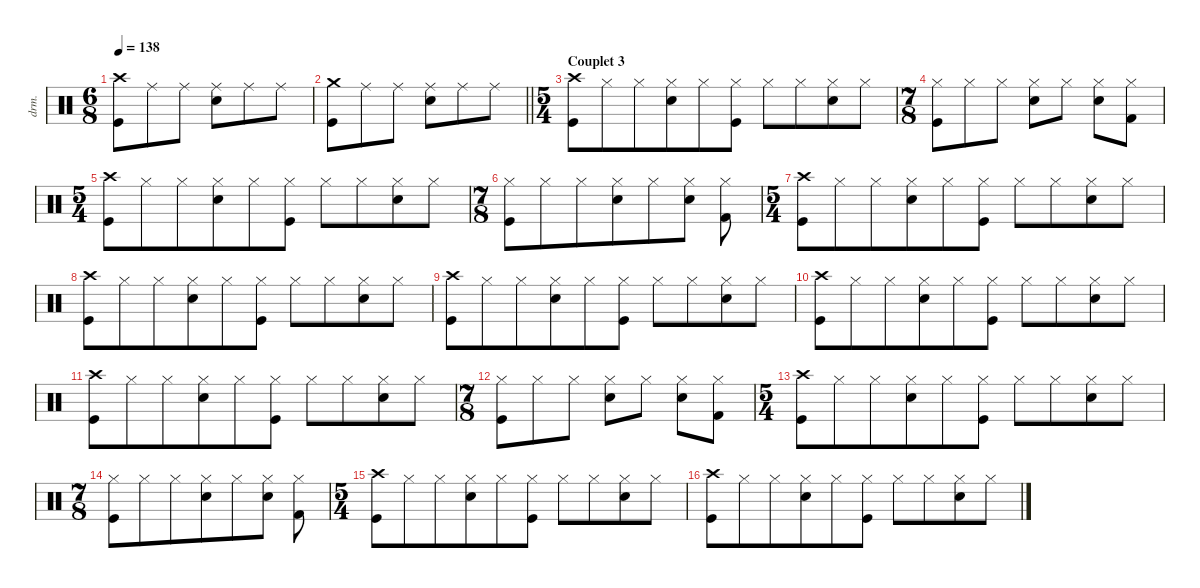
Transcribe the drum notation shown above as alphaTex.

\defaultSystemsLayout 4
\hideDynamics
\bracketExtendMode nobrackets
\track ("Percussions" "drm.") {instrument percussion}
\staff {score}
\articulation defaults
\ts (6 8)
\tempo 138
\clef neutral
\ks aminor
("Crash high (hit)" "Kick (hit)").8{dy f beam Down} "Ride (middle)".8{beam Down} "Ride (middle)".8{beam Down} ("Ride (middle)" "Snare (hit) 2").8{beam Down} "Ride (middle)".8{beam Down} "Ride (middle)".8{beam Down} |
\barLineRight lightlight
("Crash medium (hit)" "Kick (hit)").8{beam Down} "Ride (middle)".8{beam Down} "Ride (middle)".8{beam Down} ("Ride (middle)" "Snare (hit) 2").8{beam Down} "Ride (middle)".8{beam Down} "Ride (middle)".8{beam Down} |
\ts (5 4)
\beaming (8 6 4)
\section ("" "Couplet 3")
("Crash high (hit)" "Kick (hit)").8{beam Down} "Hi-Hat (closed)".8{beam Down} "Hi-Hat (closed)".8{beam Down} ("Hi-Hat (closed)" "Snare (hit) 2").8{beam Down} "Hi-Hat (closed)".8{beam Down} ("Hi-Hat (closed)" "Kick (hit)").8{beam Down} "Hi-Hat (closed)".8{beam Down} "Hi-Hat (closed)".8{beam Down} ("Hi-Hat (closed)" "Snare (hit) 2").8{beam Down} "Hi-Hat (closed)".8{beam Down} |
\ts (7 8)
\beaming (8 3 2 2)
("Hi-Hat (closed)" "Kick (hit)").8{beam Down} "Hi-Hat (closed)".8{beam Down} "Hi-Hat (closed)".8{beam Down} ("Hi-Hat (closed)" "Snare (hit) 2").8{beam Down} "Hi-Hat (closed)".8{beam Down} ("Hi-Hat (closed)" "Snare (hit) 2").8{beam Down} ("Hi-Hat (closed)" "Kick (hit) 2").8{beam Down} |
\ts (5 4)
\beaming (8 6 4)
("Crash high (hit)" "Kick (hit)").8{beam Down} "Hi-Hat (closed)".8{beam Down} "Hi-Hat (closed)".8{beam Down} ("Hi-Hat (closed)" "Snare (hit) 2").8{beam Down} "Hi-Hat (closed)".8{beam Down} ("Hi-Hat (closed)" "Kick (hit)").8{beam Down} "Hi-Hat (closed)".8{beam Down} "Hi-Hat (closed)".8{beam Down} ("Hi-Hat (closed)" "Snare (hit) 2").8{beam Down} "Hi-Hat (closed)".8{beam Down} |
\ts (7 8)
\beaming (8 6 4)
("Hi-Hat (closed)" "Kick (hit)").8{beam Down} "Hi-Hat (closed)".8{beam Down} "Hi-Hat (closed)".8{beam Down} ("Hi-Hat (closed)" "Snare (hit) 2").8{beam Down} "Hi-Hat (closed)".8{beam Down} ("Hi-Hat (closed)" "Snare (hit) 2").8{beam Down} ("Hi-Hat (closed)" "Kick (hit) 2").8{beam Down} |
\ts (5 4)
\beaming (8 6 4)
("Crash high (hit)" "Kick (hit)").8{beam Down} "Hi-Hat (closed)".8{beam Down} "Hi-Hat (closed)".8{beam Down} ("Hi-Hat (closed)" "Snare (hit) 2").8{beam Down} "Hi-Hat (closed)".8{beam Down} ("Hi-Hat (closed)" "Kick (hit)").8{beam Down} "Hi-Hat (closed)".8{beam Down} "Hi-Hat (closed)".8{beam Down} ("Hi-Hat (closed)" "Snare (hit) 2").8{beam Down} "Hi-Hat (closed)".8{beam Down} |
("Crash high (hit)" "Kick (hit)").8{beam Down} "Hi-Hat (closed)".8{beam Down} "Hi-Hat (closed)".8{beam Down} ("Hi-Hat (closed)" "Snare (hit) 2").8{beam Down} "Hi-Hat (closed)".8{beam Down} ("Hi-Hat (closed)" "Kick (hit)").8{beam Down} "Hi-Hat (closed)".8{beam Down} "Hi-Hat (closed)".8{beam Down} ("Hi-Hat (closed)" "Snare (hit) 2").8{beam Down} "Hi-Hat (closed)".8{beam Down} |
("Crash high (hit)" "Kick (hit)").8{beam Down} "Hi-Hat (closed)".8{beam Down} "Hi-Hat (closed)".8{beam Down} ("Hi-Hat (closed)" "Snare (hit) 2").8{beam Down} "Hi-Hat (closed)".8{beam Down} ("Hi-Hat (closed)" "Kick (hit)").8{beam Down} "Hi-Hat (closed)".8{beam Down} "Hi-Hat (closed)".8{beam Down} ("Hi-Hat (closed)" "Snare (hit) 2").8{beam Down} "Hi-Hat (closed)".8{beam Down} |
("Crash high (hit)" "Kick (hit)").8{beam Down} "Hi-Hat (closed)".8{beam Down} "Hi-Hat (closed)".8{beam Down} ("Hi-Hat (closed)" "Snare (hit) 2").8{beam Down} "Hi-Hat (closed)".8{beam Down} ("Hi-Hat (closed)" "Kick (hit)").8{beam Down} "Hi-Hat (closed)".8{beam Down} "Hi-Hat (closed)".8{beam Down} ("Hi-Hat (closed)" "Snare (hit) 2").8{beam Down} "Hi-Hat (closed)".8{beam Down} |
("Crash high (hit)" "Kick (hit)").8{beam Down} "Hi-Hat (closed)".8{beam Down} "Hi-Hat (closed)".8{beam Down} ("Hi-Hat (closed)" "Snare (hit) 2").8{beam Down} "Hi-Hat (closed)".8{beam Down} ("Hi-Hat (closed)" "Kick (hit)").8{beam Down} "Hi-Hat (closed)".8{beam Down} "Hi-Hat (closed)".8{beam Down} ("Hi-Hat (closed)" "Snare (hit) 2").8{beam Down} "Hi-Hat (closed)".8{beam Down} |
\ts (7 8)
\beaming (8 3 2 2)
("Hi-Hat (closed)" "Kick (hit)").8{beam Down} "Hi-Hat (closed)".8{beam Down} "Hi-Hat (closed)".8{beam Down} ("Hi-Hat (closed)" "Snare (hit) 2").8{beam Down} "Hi-Hat (closed)".8{beam Down} ("Hi-Hat (closed)" "Snare (hit) 2").8{beam Down} ("Hi-Hat (closed)" "Kick (hit) 2").8{beam Down} |
\ts (5 4)
\beaming (8 6 4)
("Crash high (hit)" "Kick (hit)").8{beam Down} "Hi-Hat (closed)".8{beam Down} "Hi-Hat (closed)".8{beam Down} ("Hi-Hat (closed)" "Snare (hit) 2").8{beam Down} "Hi-Hat (closed)".8{beam Down} ("Hi-Hat (closed)" "Kick (hit)").8{beam Down} "Hi-Hat (closed)".8{beam Down} "Hi-Hat (closed)".8{beam Down} ("Hi-Hat (closed)" "Snare (hit) 2").8{beam Down} "Hi-Hat (closed)".8{beam Down} |
\ts (7 8)
\beaming (8 6 4)
("Hi-Hat (closed)" "Kick (hit)").8{beam Down} "Hi-Hat (closed)".8{beam Down} "Hi-Hat (closed)".8{beam Down} ("Hi-Hat (closed)" "Snare (hit) 2").8{beam Down} "Hi-Hat (closed)".8{beam Down} ("Hi-Hat (closed)" "Snare (hit) 2").8{beam Down} ("Hi-Hat (closed)" "Kick (hit) 2").8{beam Down} |
\ts (5 4)
\beaming (8 6 4)
("Crash high (hit)" "Kick (hit)").8{beam Down} "Hi-Hat (closed)".8{beam Down} "Hi-Hat (closed)".8{beam Down} ("Hi-Hat (closed)" "Snare (hit) 2").8{beam Down} "Hi-Hat (closed)".8{beam Down} ("Hi-Hat (closed)" "Kick (hit)").8{beam Down} "Hi-Hat (closed)".8{beam Down} "Hi-Hat (closed)".8{beam Down} ("Hi-Hat (closed)" "Snare (hit) 2").8{beam Down} "Hi-Hat (closed)".8{beam Down} |
("Crash high (hit)" "Kick (hit)").8{beam Down} "Hi-Hat (closed)".8{beam Down} "Hi-Hat (closed)".8{beam Down} ("Hi-Hat (closed)" "Snare (hit) 2").8{beam Down} "Hi-Hat (closed)".8{beam Down} ("Hi-Hat (closed)" "Kick (hit)").8{beam Down} "Hi-Hat (closed)".8{beam Down} "Hi-Hat (closed)".8{beam Down} ("Hi-Hat (closed)" "Snare (hit) 2").8{beam Down} "Hi-Hat (closed)".8{beam Down}
